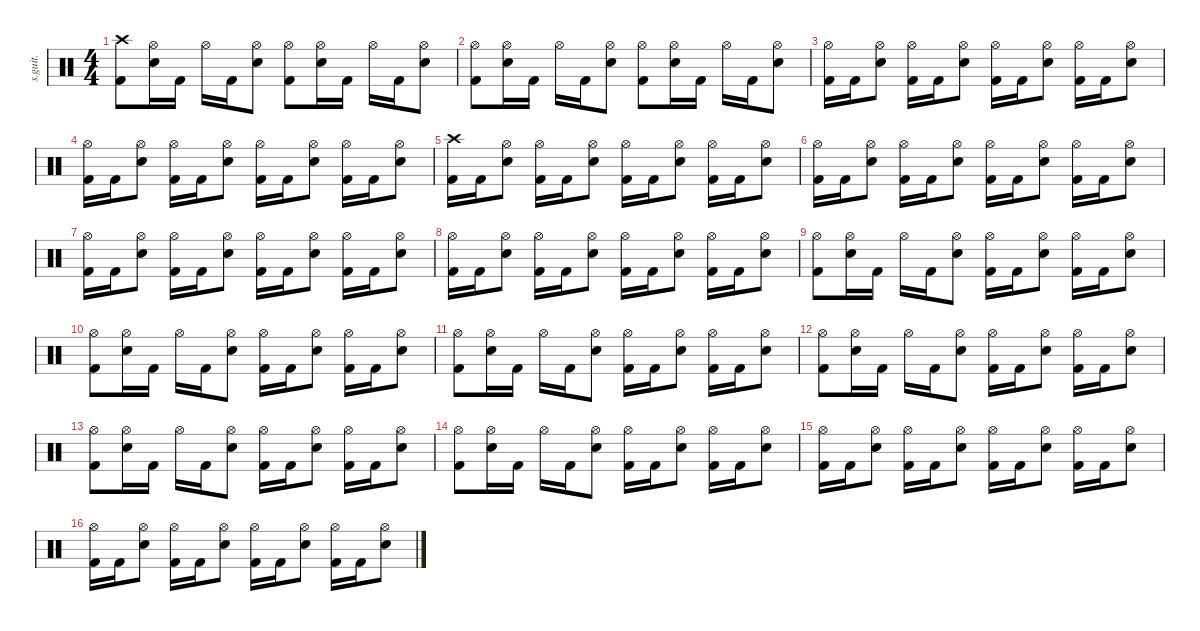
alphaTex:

\defaultSystemsLayout 4
\hideDynamics
\bracketExtendMode nobrackets
\track ("" "s.guit.") {instrument percussion}
\staff {score}
\articulation defaults
\ts (4 4)
\tempo (160 hide)
\clef neutral
\ks c
("Crash high (hit)" "Kick (hit) 2").8{dy f} ("Hi-Hat (open)" "Snare (hit) 2").16 "Kick (hit) 2".16 "Hi-Hat (open)".16 "Kick (hit) 2".16 ("Hi-Hat (open)" "Snare (hit) 2").8 ("Hi-Hat (open)" "Kick (hit) 2").8 ("Hi-Hat (open)" "Snare (hit) 2").16 "Kick (hit) 2".16 "Hi-Hat (open)".16 "Kick (hit) 2".16 ("Hi-Hat (open)" "Snare (hit) 2").8 |
("Hi-Hat (open)" "Kick (hit) 2").8 ("Hi-Hat (open)" "Snare (hit) 2").16 "Kick (hit) 2".16 "Hi-Hat (open)".16 "Kick (hit) 2".16 ("Hi-Hat (open)" "Snare (hit) 2").8 ("Hi-Hat (open)" "Kick (hit) 2").8 ("Hi-Hat (open)" "Snare (hit) 2").16 "Kick (hit) 2".16 "Hi-Hat (open)".16 "Kick (hit) 2".16 ("Hi-Hat (open)" "Snare (hit) 2").8 |
("Hi-Hat (open)" "Kick (hit) 2").16 "Kick (hit) 2".16 ("Hi-Hat (open)" "Snare (hit) 2").8 ("Hi-Hat (open)" "Kick (hit) 2").16 "Kick (hit) 2".16 ("Hi-Hat (open)" "Snare (hit) 2").8 ("Hi-Hat (open)" "Kick (hit) 2").16 "Kick (hit) 2".16 ("Hi-Hat (open)" "Snare (hit) 2").8 ("Hi-Hat (open)" "Kick (hit) 2").16 "Kick (hit) 2".16 ("Hi-Hat (open)" "Snare (hit) 2").8 |
("Hi-Hat (open)" "Kick (hit) 2").16 "Kick (hit) 2".16 ("Hi-Hat (open)" "Snare (hit) 2").8 ("Hi-Hat (open)" "Kick (hit) 2").16 "Kick (hit) 2".16 ("Hi-Hat (open)" "Snare (hit) 2").8 ("Hi-Hat (open)" "Kick (hit) 2").16 "Kick (hit) 2".16 ("Hi-Hat (open)" "Snare (hit) 2").8 ("Hi-Hat (open)" "Kick (hit) 2").16 "Kick (hit) 2".16 ("Hi-Hat (open)" "Snare (hit) 2").8 |
("Crash high (hit)" "Kick (hit) 2").16 "Kick (hit) 2".16 ("Hi-Hat (open)" "Snare (hit) 2").8 ("Hi-Hat (open)" "Kick (hit) 2").16 "Kick (hit) 2".16 ("Hi-Hat (open)" "Snare (hit) 2").8 ("Hi-Hat (open)" "Kick (hit) 2").16 "Kick (hit) 2".16 ("Hi-Hat (open)" "Snare (hit) 2").8 ("Hi-Hat (open)" "Kick (hit) 2").16 "Kick (hit) 2".16 ("Hi-Hat (open)" "Snare (hit) 2").8 |
("Hi-Hat (open)" "Kick (hit) 2").16 "Kick (hit) 2".16 ("Hi-Hat (open)" "Snare (hit) 2").8 ("Hi-Hat (open)" "Kick (hit) 2").16 "Kick (hit) 2".16 ("Hi-Hat (open)" "Snare (hit) 2").8 ("Hi-Hat (open)" "Kick (hit) 2").16 "Kick (hit) 2".16 ("Hi-Hat (open)" "Snare (hit) 2").8 ("Hi-Hat (open)" "Kick (hit) 2").16 "Kick (hit) 2".16 ("Hi-Hat (open)" "Snare (hit) 2").8 |
("Hi-Hat (open)" "Kick (hit) 2").16 "Kick (hit) 2".16 ("Hi-Hat (open)" "Snare (hit) 2").8 ("Hi-Hat (open)" "Kick (hit) 2").16 "Kick (hit) 2".16 ("Hi-Hat (open)" "Snare (hit) 2").8 ("Hi-Hat (open)" "Kick (hit) 2").16 "Kick (hit) 2".16 ("Hi-Hat (open)" "Snare (hit) 2").8 ("Hi-Hat (open)" "Kick (hit) 2").16 "Kick (hit) 2".16 ("Hi-Hat (open)" "Snare (hit) 2").8 |
("Hi-Hat (open)" "Kick (hit) 2").16 "Kick (hit) 2".16 ("Hi-Hat (open)" "Snare (hit) 2").8 ("Hi-Hat (open)" "Kick (hit) 2").16 "Kick (hit) 2".16 ("Hi-Hat (open)" "Snare (hit) 2").8 ("Hi-Hat (open)" "Kick (hit) 2").16 "Kick (hit) 2".16 ("Hi-Hat (open)" "Snare (hit) 2").8 ("Hi-Hat (open)" "Kick (hit) 2").16 "Kick (hit) 2".16 ("Hi-Hat (open)" "Snare (hit) 2").8 |
("Hi-Hat (open)" "Kick (hit) 2").8 ("Hi-Hat (open)" "Snare (hit) 2").16 "Kick (hit) 2".16 "Hi-Hat (open)".16 "Kick (hit) 2".16 ("Hi-Hat (open)" "Snare (hit) 2").8 ("Hi-Hat (open)" "Kick (hit) 2").16 "Kick (hit) 2".16 ("Hi-Hat (open)" "Snare (hit) 2").8 ("Hi-Hat (open)" "Kick (hit) 2").16 "Kick (hit) 2".16 ("Hi-Hat (open)" "Snare (hit) 2").8 |
("Hi-Hat (open)" "Kick (hit) 2").8 ("Hi-Hat (open)" "Snare (hit) 2").16 "Kick (hit) 2".16 "Hi-Hat (open)".16 "Kick (hit) 2".16 ("Hi-Hat (open)" "Snare (hit) 2").8 ("Hi-Hat (open)" "Kick (hit) 2").16 "Kick (hit) 2".16 ("Hi-Hat (open)" "Snare (hit) 2").8 ("Hi-Hat (open)" "Kick (hit) 2").16 "Kick (hit) 2".16 ("Hi-Hat (open)" "Snare (hit) 2").8 |
("Hi-Hat (open)" "Kick (hit) 2").8 ("Hi-Hat (open)" "Snare (hit) 2").16 "Kick (hit) 2".16 "Hi-Hat (open)".16 "Kick (hit) 2".16 ("Hi-Hat (open)" "Snare (hit) 2").8 ("Hi-Hat (open)" "Kick (hit) 2").16 "Kick (hit) 2".16 ("Hi-Hat (open)" "Snare (hit) 2").8 ("Hi-Hat (open)" "Kick (hit) 2").16 "Kick (hit) 2".16 ("Hi-Hat (open)" "Snare (hit) 2").8 |
("Hi-Hat (open)" "Kick (hit) 2").8 ("Hi-Hat (open)" "Snare (hit) 2").16 "Kick (hit) 2".16 "Hi-Hat (open)".16 "Kick (hit) 2".16 ("Hi-Hat (open)" "Snare (hit) 2").8 ("Hi-Hat (open)" "Kick (hit) 2").16 "Kick (hit) 2".16 ("Hi-Hat (open)" "Snare (hit) 2").8 ("Hi-Hat (open)" "Kick (hit) 2").16 "Kick (hit) 2".16 ("Hi-Hat (open)" "Snare (hit) 2").8 |
("Hi-Hat (open)" "Kick (hit) 2").8 ("Hi-Hat (open)" "Snare (hit) 2").16 "Kick (hit) 2".16 "Hi-Hat (open)".16 "Kick (hit) 2".16 ("Hi-Hat (open)" "Snare (hit) 2").8 ("Hi-Hat (open)" "Kick (hit) 2").16 "Kick (hit) 2".16 ("Hi-Hat (open)" "Snare (hit) 2").8 ("Hi-Hat (open)" "Kick (hit) 2").16 "Kick (hit) 2".16 ("Hi-Hat (open)" "Snare (hit) 2").8 |
("Hi-Hat (open)" "Kick (hit) 2").8 ("Hi-Hat (open)" "Snare (hit) 2").16 "Kick (hit) 2".16 "Hi-Hat (open)".16 "Kick (hit) 2".16 ("Hi-Hat (open)" "Snare (hit) 2").8 ("Hi-Hat (open)" "Kick (hit) 2").16 "Kick (hit) 2".16 ("Hi-Hat (open)" "Snare (hit) 2").8 ("Hi-Hat (open)" "Kick (hit) 2").16 "Kick (hit) 2".16 ("Hi-Hat (open)" "Snare (hit) 2").8 |
("Hi-Hat (open)" "Kick (hit) 2").16 "Kick (hit) 2".16 ("Hi-Hat (open)" "Snare (hit) 2").8 ("Hi-Hat (open)" "Kick (hit) 2").16 "Kick (hit) 2".16 ("Hi-Hat (open)" "Snare (hit) 2").8 ("Hi-Hat (open)" "Kick (hit) 2").16 "Kick (hit) 2".16 ("Hi-Hat (open)" "Snare (hit) 2").8 ("Hi-Hat (open)" "Kick (hit) 2").16 "Kick (hit) 2".16 ("Hi-Hat (open)" "Snare (hit) 2").8 |
("Hi-Hat (open)" "Kick (hit) 2").16 "Kick (hit) 2".16 ("Hi-Hat (open)" "Snare (hit) 2").8 ("Hi-Hat (open)" "Kick (hit) 2").16 "Kick (hit) 2".16 ("Hi-Hat (open)" "Snare (hit) 2").8 ("Hi-Hat (open)" "Kick (hit) 2").16 "Kick (hit) 2".16 ("Hi-Hat (open)" "Snare (hit) 2").8 ("Hi-Hat (open)" "Kick (hit) 2").16 "Kick (hit) 2".16 ("Hi-Hat (open)" "Snare (hit) 2").8
